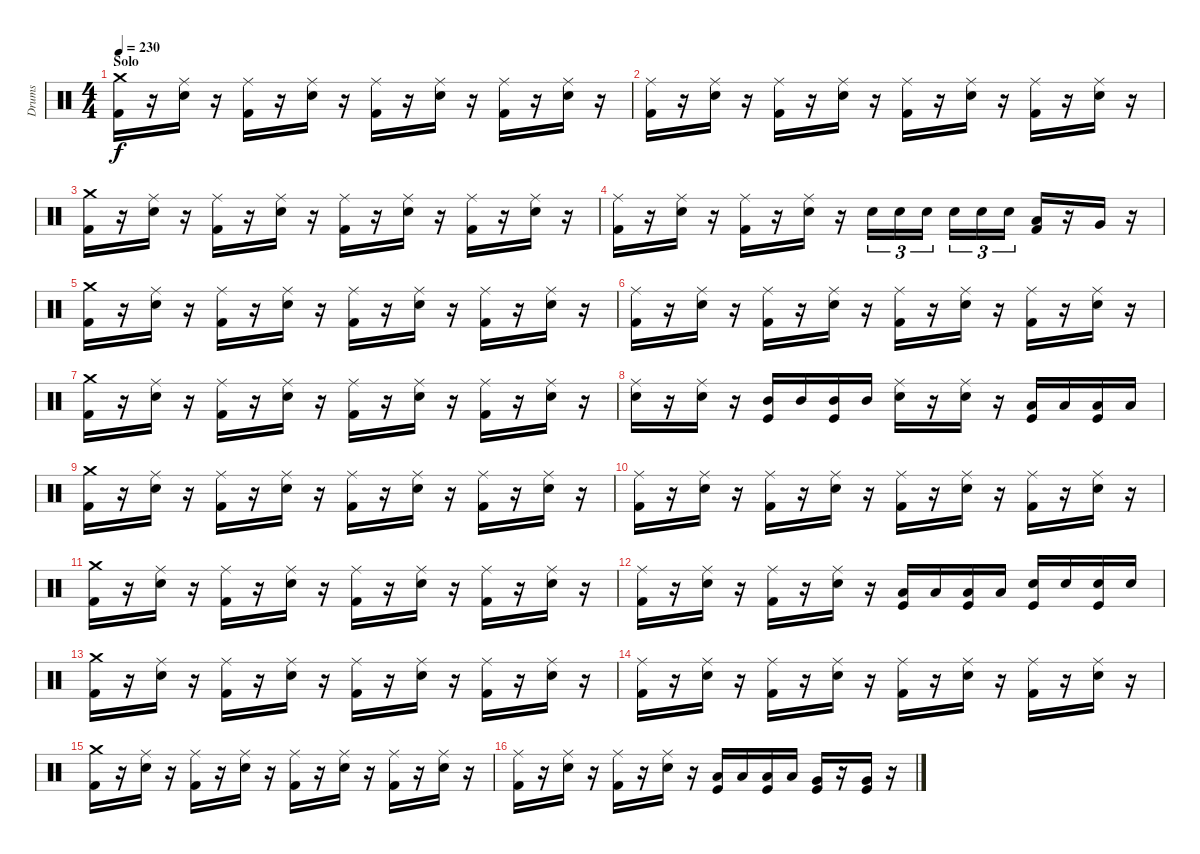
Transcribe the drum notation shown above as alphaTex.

\track ("Drums" "Drums") {instrument percussion}
\staff {score}
\articulation defaults
\ts (4 4)
\section ("" "Solo")
\tempo 230
\clef neutral
\ks c
("Crash medium (hit)" "Kick (hit) 2").16{dy f} r.16 ("Ride (middle)" "Electric Snare (hit)").16 r.16 ("Ride (middle)" "Kick (hit) 2").16 r.16 ("Ride (middle)" "Electric Snare (hit)").16 r.16 ("Ride (middle)" "Kick (hit) 2").16 r.16 ("Ride (middle)" "Electric Snare (hit)").16 r.16 ("Ride (middle)" "Kick (hit) 2").16 r.16 ("Ride (middle)" "Electric Snare (hit)").16 r.16 |
("Ride (middle)" "Kick (hit) 2").16 r.16 ("Ride (middle)" "Electric Snare (hit)").16 r.16 ("Ride (middle)" "Kick (hit) 2").16 r.16 ("Ride (middle)" "Electric Snare (hit)").16 r.16 ("Ride (middle)" "Kick (hit) 2").16 r.16 ("Ride (middle)" "Electric Snare (hit)").16 r.16 ("Ride (middle)" "Kick (hit) 2").16 r.16 ("Ride (middle)" "Electric Snare (hit)").16 r.16 |
("Crash medium (hit)" "Kick (hit) 2").16 r.16 ("Ride (middle)" "Electric Snare (hit)").16 r.16 ("Ride (middle)" "Kick (hit) 2").16 r.16 ("Ride (middle)" "Electric Snare (hit)").16 r.16 ("Ride (middle)" "Kick (hit) 2").16 r.16 ("Ride (middle)" "Electric Snare (hit)").16 r.16 ("Ride (middle)" "Kick (hit) 2").16 r.16 ("Ride (middle)" "Electric Snare (hit)").16 r.16 |
("Ride (middle)" "Kick (hit) 2").16 r.16 ("Ride (middle)" "Electric Snare (hit)").16 r.16 ("Ride (middle)" "Kick (hit) 2").16 r.16 ("Ride (middle)" "Electric Snare (hit)").16 r.16 "Electric Snare (hit)".16{tu (3 2)} "Electric Snare (hit)".16{tu (3 2)} "Electric Snare (hit)".16{tu (3 2) beam splitsecondary} "Electric Snare (hit)".16{tu (3 2)} "Electric Snare (hit)".16{tu (3 2)} "Electric Snare (hit)".16{tu (3 2)} ("Low Tom (hit)" "Kick (hit) 2").16 r.16 "Very Low Tom (hit)".16 r.16 |
("Crash medium (hit)" "Kick (hit) 2").16 r.16 ("Ride (middle)" "Electric Snare (hit)").16 r.16 ("Ride (middle)" "Kick (hit) 2").16 r.16 ("Ride (middle)" "Electric Snare (hit)").16 r.16 ("Ride (middle)" "Kick (hit) 2").16 r.16 ("Ride (middle)" "Electric Snare (hit)").16 r.16 ("Ride (middle)" "Kick (hit) 2").16 r.16 ("Ride (middle)" "Electric Snare (hit)").16 r.16 |
("Ride (middle)" "Kick (hit) 2").16 r.16 ("Ride (middle)" "Electric Snare (hit)").16 r.16 ("Ride (middle)" "Kick (hit) 2").16 r.16 ("Ride (middle)" "Electric Snare (hit)").16 r.16 ("Ride (middle)" "Kick (hit) 2").16 r.16 ("Ride (middle)" "Electric Snare (hit)").16 r.16 ("Ride (middle)" "Kick (hit) 2").16 r.16 ("Ride (middle)" "Electric Snare (hit)").16 r.16 |
("Crash medium (hit)" "Kick (hit) 2").16 r.16 ("Ride (middle)" "Electric Snare (hit)").16 r.16 ("Ride (middle)" "Kick (hit) 2").16 r.16 ("Ride (middle)" "Electric Snare (hit)").16 r.16 ("Ride (middle)" "Kick (hit) 2").16 r.16 ("Ride (middle)" "Electric Snare (hit)").16 r.16 ("Ride (middle)" "Kick (hit) 2").16 r.16 ("Ride (middle)" "Electric Snare (hit)").16 r.16 |
("Ride (middle)" "Electric Snare (hit)").16 r.16 ("Ride (middle)" "Electric Snare (hit)").16 r.16 ("Mid Tom (hit)" "Kick (hit)").16 "Mid Tom (hit)".16 ("Mid Tom (hit)" "Kick (hit)").16 "Mid Tom (hit)".16 ("Ride (middle)" "Electric Snare (hit)").16 r.16 ("Ride (middle)" "Electric Snare (hit)").16 r.16 ("Low Tom (hit)" "Kick (hit)").16 "Low Tom (hit)".16 ("Low Tom (hit)" "Kick (hit)").16 "Low Tom (hit)".16 |
("Crash medium (hit)" "Kick (hit) 2").16 r.16 ("Ride (middle)" "Electric Snare (hit)").16 r.16 ("Ride (middle)" "Kick (hit) 2").16 r.16 ("Ride (middle)" "Electric Snare (hit)").16 r.16 ("Ride (middle)" "Kick (hit) 2").16 r.16 ("Ride (middle)" "Electric Snare (hit)").16 r.16 ("Ride (middle)" "Kick (hit) 2").16 r.16 ("Ride (middle)" "Electric Snare (hit)").16 r.16 |
("Ride (middle)" "Kick (hit) 2").16 r.16 ("Ride (middle)" "Electric Snare (hit)").16 r.16 ("Ride (middle)" "Kick (hit) 2").16 r.16 ("Ride (middle)" "Electric Snare (hit)").16 r.16 ("Ride (middle)" "Kick (hit) 2").16 r.16 ("Ride (middle)" "Electric Snare (hit)").16 r.16 ("Ride (middle)" "Kick (hit) 2").16 r.16 ("Ride (middle)" "Electric Snare (hit)").16 r.16 |
("Crash medium (hit)" "Kick (hit) 2").16 r.16 ("Ride (middle)" "Electric Snare (hit)").16 r.16 ("Ride (middle)" "Kick (hit) 2").16 r.16 ("Ride (middle)" "Electric Snare (hit)").16 r.16 ("Ride (middle)" "Kick (hit) 2").16 r.16 ("Ride (middle)" "Electric Snare (hit)").16 r.16 ("Ride (middle)" "Kick (hit) 2").16 r.16 ("Ride (middle)" "Electric Snare (hit)").16 r.16 |
("Ride (middle)" "Kick (hit) 2").16 r.16 ("Ride (middle)" "Electric Snare (hit)").16 r.16 ("Ride (middle)" "Kick (hit) 2").16 r.16 ("Ride (middle)" "Electric Snare (hit)").16 r.16 ("Low Tom (hit)" "Kick (hit)").16 "Low Tom (hit)".16 ("Low Tom (hit)" "Kick (hit)").16 "Low Tom (hit)".16 ("Electric Snare (hit)" "Kick (hit)").16 "Electric Snare (hit)".16 ("Electric Snare (hit)" "Kick (hit)").16 "Electric Snare (hit)".16 |
("Crash medium (hit)" "Kick (hit) 2").16 r.16 ("Ride (middle)" "Electric Snare (hit)").16 r.16 ("Ride (middle)" "Kick (hit) 2").16 r.16 ("Ride (middle)" "Electric Snare (hit)").16 r.16 ("Ride (middle)" "Kick (hit) 2").16 r.16 ("Ride (middle)" "Electric Snare (hit)").16 r.16 ("Ride (middle)" "Kick (hit) 2").16 r.16 ("Ride (middle)" "Electric Snare (hit)").16 r.16 |
("Ride (middle)" "Kick (hit) 2").16 r.16 ("Ride (middle)" "Electric Snare (hit)").16 r.16 ("Ride (middle)" "Kick (hit) 2").16 r.16 ("Ride (middle)" "Electric Snare (hit)").16 r.16 ("Ride (middle)" "Kick (hit) 2").16 r.16 ("Ride (middle)" "Electric Snare (hit)").16 r.16 ("Ride (middle)" "Kick (hit) 2").16 r.16 ("Ride (middle)" "Electric Snare (hit)").16 r.16 |
("Crash medium (hit)" "Kick (hit) 2").16 r.16 ("Ride (middle)" "Electric Snare (hit)").16 r.16 ("Ride (middle)" "Kick (hit) 2").16 r.16 ("Ride (middle)" "Electric Snare (hit)").16 r.16 ("Ride (middle)" "Kick (hit) 2").16 r.16 ("Ride (middle)" "Electric Snare (hit)").16 r.16 ("Ride (middle)" "Kick (hit) 2").16 r.16 ("Ride (middle)" "Electric Snare (hit)").16 r.16 |
("Ride (middle)" "Kick (hit) 2").16 r.16 ("Ride (middle)" "Electric Snare (hit)").16 r.16 ("Ride (middle)" "Kick (hit) 2").16 r.16 ("Ride (middle)" "Electric Snare (hit)").16 r.16 ("Low Tom (hit)" "Kick (hit)").16 "Low Tom (hit)".16 ("Low Tom (hit)" "Kick (hit)").16 "Low Tom (hit)".16 ("Very Low Tom (hit)" "Kick (hit)").16 r.16 ("Very Low Tom (hit)" "Kick (hit)").16 r.16
